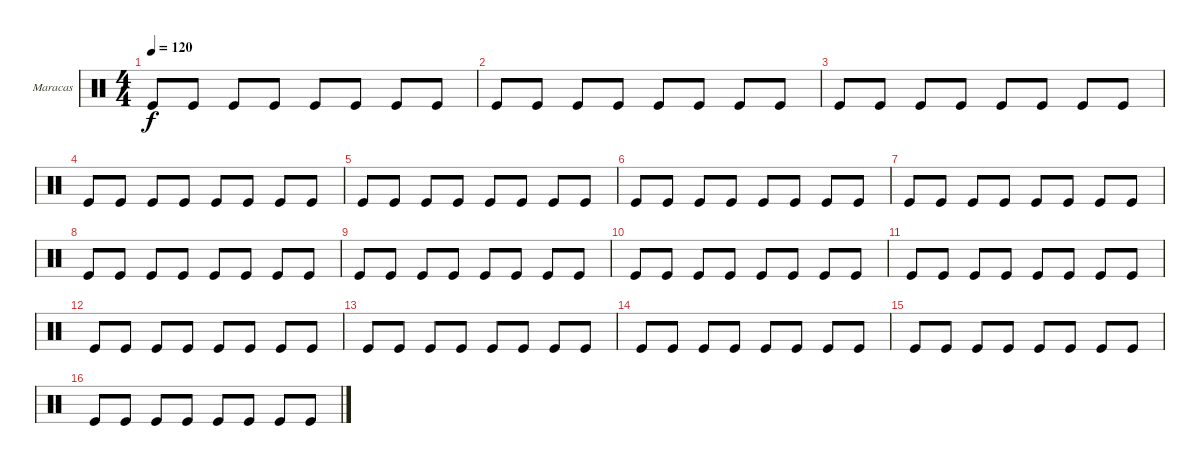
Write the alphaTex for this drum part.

\defaultSystemsLayout 4
\bracketExtendMode groupsimilarinstruments
\firstSystemTrackNameOrientation horizontal
\otherSystemsTrackNameOrientation horizontal
\track ("Maracas" "Maracas") {multiBarRest instrument percussion}
\staff {score}
\articulation defaults
\ts (4 4)
\tempo 120
\clef neutral
\ks c "Kick (hit)".8{dy f} "Kick (hit)".8 "Kick (hit)".8 "Kick (hit)".8 "Kick (hit)".8 "Kick (hit)".8 "Kick (hit)".8 "Kick (hit)".8
|
"Kick (hit)".8 "Kick (hit)".8 "Kick (hit)".8 "Kick (hit)".8 "Kick (hit)".8 "Kick (hit)".8 "Kick (hit)".8 "Kick (hit)".8 |
"Kick (hit)".8 "Kick (hit)".8 "Kick (hit)".8 "Kick (hit)".8 "Kick (hit)".8 "Kick (hit)".8 "Kick (hit)".8 "Kick (hit)".8 |
"Kick (hit)".8 "Kick (hit)".8 "Kick (hit)".8 "Kick (hit)".8 "Kick (hit)".8 "Kick (hit)".8 "Kick (hit)".8 "Kick (hit)".8 |
"Kick (hit)".8 "Kick (hit)".8 "Kick (hit)".8 "Kick (hit)".8 "Kick (hit)".8 "Kick (hit)".8 "Kick (hit)".8 "Kick (hit)".8 |
"Kick (hit)".8 "Kick (hit)".8 "Kick (hit)".8 "Kick (hit)".8 "Kick (hit)".8 "Kick (hit)".8 "Kick (hit)".8 "Kick (hit)".8 |
"Kick (hit)".8 "Kick (hit)".8 "Kick (hit)".8 "Kick (hit)".8 "Kick (hit)".8 "Kick (hit)".8 "Kick (hit)".8 "Kick (hit)".8 |
"Kick (hit)".8 "Kick (hit)".8 "Kick (hit)".8 "Kick (hit)".8 "Kick (hit)".8 "Kick (hit)".8 "Kick (hit)".8 "Kick (hit)".8 |
"Kick (hit)".8 "Kick (hit)".8 "Kick (hit)".8 "Kick (hit)".8 "Kick (hit)".8 "Kick (hit)".8 "Kick (hit)".8 "Kick (hit)".8 |
"Kick (hit)".8 "Kick (hit)".8 "Kick (hit)".8 "Kick (hit)".8 "Kick (hit)".8 "Kick (hit)".8 "Kick (hit)".8 "Kick (hit)".8 |
"Kick (hit)".8 "Kick (hit)".8 "Kick (hit)".8 "Kick (hit)".8 "Kick (hit)".8 "Kick (hit)".8 "Kick (hit)".8 "Kick (hit)".8 |
"Kick (hit)".8 "Kick (hit)".8 "Kick (hit)".8 "Kick (hit)".8 "Kick (hit)".8 "Kick (hit)".8 "Kick (hit)".8 "Kick (hit)".8 |
"Kick (hit)".8 "Kick (hit)".8 "Kick (hit)".8 "Kick (hit)".8 "Kick (hit)".8 "Kick (hit)".8 "Kick (hit)".8 "Kick (hit)".8 |
"Kick (hit)".8 "Kick (hit)".8 "Kick (hit)".8 "Kick (hit)".8 "Kick (hit)".8 "Kick (hit)".8 "Kick (hit)".8 "Kick (hit)".8 |
"Kick (hit)".8 "Kick (hit)".8 "Kick (hit)".8 "Kick (hit)".8 "Kick (hit)".8 "Kick (hit)".8 "Kick (hit)".8 "Kick (hit)".8 |
"Kick (hit)".8 "Kick (hit)".8 "Kick (hit)".8 "Kick (hit)".8 "Kick (hit)".8 "Kick (hit)".8 "Kick (hit)".8 "Kick (hit)".8
